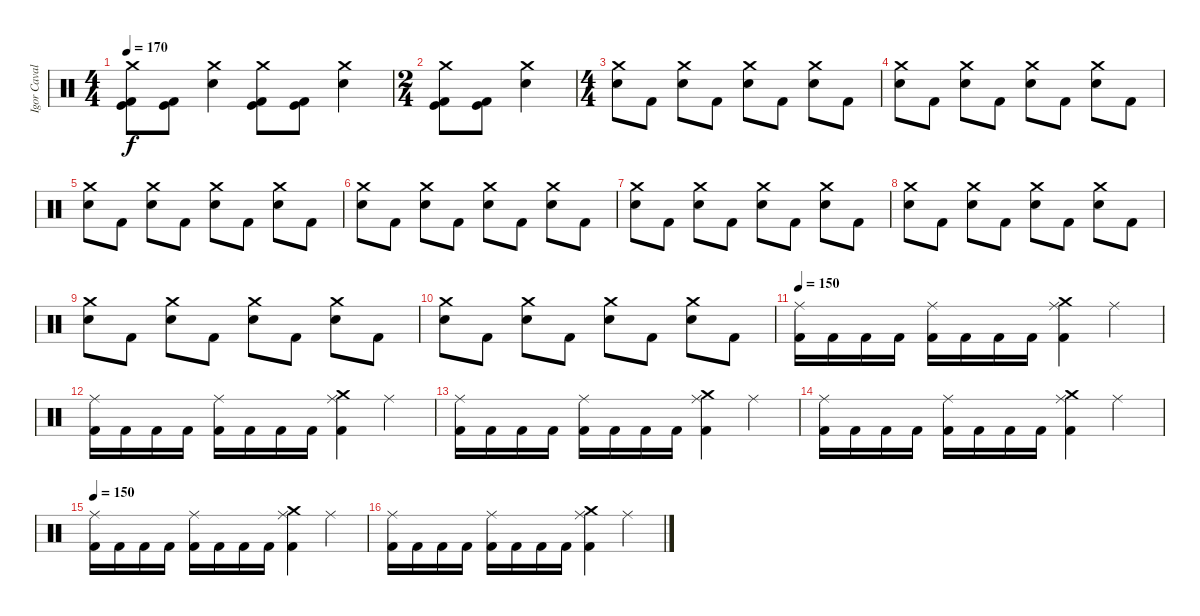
\track ("Igor Cavalera" "Igor Caval") {instrument percussion}
\staff {score}
\articulation defaults
\ts (4 4)
\tempo 170
\clef neutral
\ks c
("Crash medium (hit)" "Kick (hit)" "Kick (hit) 2").8{dy f} ("Kick (hit)" "Kick (hit) 2").8 ("Crash medium (hit)" "Snare (hit) 2").4 ("Crash medium (hit)" "Kick (hit)" "Kick (hit) 2").8 ("Kick (hit)" "Kick (hit) 2").8 ("Crash medium (hit)" "Snare (hit) 2").4 |
\ts (2 4)
("Crash medium (hit)" "Kick (hit)" "Kick (hit) 2").8 ("Kick (hit)" "Kick (hit) 2").8 ("Crash medium (hit)" "Snare (hit) 2").4 |
\ts (4 4)
("Crash medium (hit)" "Snare (hit) 2").8 "Kick (hit) 2".8 ("Crash medium (hit)" "Snare (hit) 2").8 "Kick (hit) 2".8 ("Crash medium (hit)" "Snare (hit) 2").8 "Kick (hit) 2".8 ("Crash medium (hit)" "Snare (hit) 2").8 "Kick (hit) 2".8 |
("Crash medium (hit)" "Snare (hit) 2").8 "Kick (hit) 2".8 ("Crash medium (hit)" "Snare (hit) 2").8 "Kick (hit) 2".8 ("Crash medium (hit)" "Snare (hit) 2").8 "Kick (hit) 2".8 ("Crash medium (hit)" "Snare (hit) 2").8 "Kick (hit) 2".8 |
("Crash medium (hit)" "Snare (hit) 2").8 "Kick (hit) 2".8 ("Crash medium (hit)" "Snare (hit) 2").8 "Kick (hit) 2".8 ("Crash medium (hit)" "Snare (hit) 2").8 "Kick (hit) 2".8 ("Crash medium (hit)" "Snare (hit) 2").8 "Kick (hit) 2".8 |
("Crash medium (hit)" "Snare (hit) 2").8 "Kick (hit) 2".8 ("Crash medium (hit)" "Snare (hit) 2").8 "Kick (hit) 2".8 ("Crash medium (hit)" "Snare (hit) 2").8 "Kick (hit) 2".8 ("Crash medium (hit)" "Snare (hit) 2").8 "Kick (hit) 2".8 |
("Crash medium (hit)" "Snare (hit) 2").8 "Kick (hit) 2".8 ("Crash medium (hit)" "Snare (hit) 2").8 "Kick (hit) 2".8 ("Crash medium (hit)" "Snare (hit) 2").8 "Kick (hit) 2".8 ("Crash medium (hit)" "Snare (hit) 2").8 "Kick (hit) 2".8 |
("Crash medium (hit)" "Snare (hit) 2").8 "Kick (hit) 2".8 ("Crash medium (hit)" "Snare (hit) 2").8 "Kick (hit) 2".8 ("Crash medium (hit)" "Snare (hit) 2").8 "Kick (hit) 2".8 ("Crash medium (hit)" "Snare (hit) 2").8 "Kick (hit) 2".8 |
("Crash medium (hit)" "Snare (hit) 2").8 "Kick (hit) 2".8 ("Crash medium (hit)" "Snare (hit) 2").8 "Kick (hit) 2".8 ("Crash medium (hit)" "Snare (hit) 2").8 "Kick (hit) 2".8 ("Crash medium (hit)" "Snare (hit) 2").8 "Kick (hit) 2".8 |
("Crash medium (hit)" "Snare (hit) 2").8 "Kick (hit) 2".8 ("Crash medium (hit)" "Snare (hit) 2").8 "Kick (hit) 2".8 ("Crash medium (hit)" "Snare (hit) 2").8 "Kick (hit) 2".8 ("Crash medium (hit)" "Snare (hit) 2").8 "Kick (hit) 2".8 |
\tempo 150
("Ride (middle)" "Kick (hit) 2").16 "Kick (hit) 2".16 "Kick (hit) 2".16 "Kick (hit) 2".16 ("Ride (middle)" "Kick (hit) 2").16 "Kick (hit) 2".16 "Kick (hit) 2".16 "Kick (hit) 2".16 ("Crash medium (hit)" "Ride (middle)" "Kick (hit) 2").4 "Ride (middle)".4 |
("Ride (middle)" "Kick (hit) 2").16 "Kick (hit) 2".16 "Kick (hit) 2".16 "Kick (hit) 2".16 ("Ride (middle)" "Kick (hit) 2").16 "Kick (hit) 2".16 "Kick (hit) 2".16 "Kick (hit) 2".16 ("Crash medium (hit)" "Ride (middle)" "Kick (hit) 2").4 "Ride (middle)".4 |
("Ride (middle)" "Kick (hit) 2").16 "Kick (hit) 2".16 "Kick (hit) 2".16 "Kick (hit) 2".16 ("Ride (middle)" "Kick (hit) 2").16 "Kick (hit) 2".16 "Kick (hit) 2".16 "Kick (hit) 2".16 ("Crash medium (hit)" "Ride (middle)" "Kick (hit) 2").4 "Ride (middle)".4 |
("Ride (middle)" "Kick (hit) 2").16 "Kick (hit) 2".16 "Kick (hit) 2".16 "Kick (hit) 2".16 ("Ride (middle)" "Kick (hit) 2").16 "Kick (hit) 2".16 "Kick (hit) 2".16 "Kick (hit) 2".16 ("Crash medium (hit)" "Ride (middle)" "Kick (hit) 2").4 "Ride (middle)".4 |
\tempo 150
("Ride (middle)" "Kick (hit) 2").16 "Kick (hit) 2".16 "Kick (hit) 2".16 "Kick (hit) 2".16 ("Ride (middle)" "Kick (hit) 2").16 "Kick (hit) 2".16 "Kick (hit) 2".16 "Kick (hit) 2".16 ("Crash medium (hit)" "Ride (middle)" "Kick (hit) 2").4 "Ride (middle)".4 |
("Ride (middle)" "Kick (hit) 2").16 "Kick (hit) 2".16 "Kick (hit) 2".16 "Kick (hit) 2".16 ("Ride (middle)" "Kick (hit) 2").16 "Kick (hit) 2".16 "Kick (hit) 2".16 "Kick (hit) 2".16 ("Crash medium (hit)" "Ride (middle)" "Kick (hit) 2").4 "Ride (middle)".4
